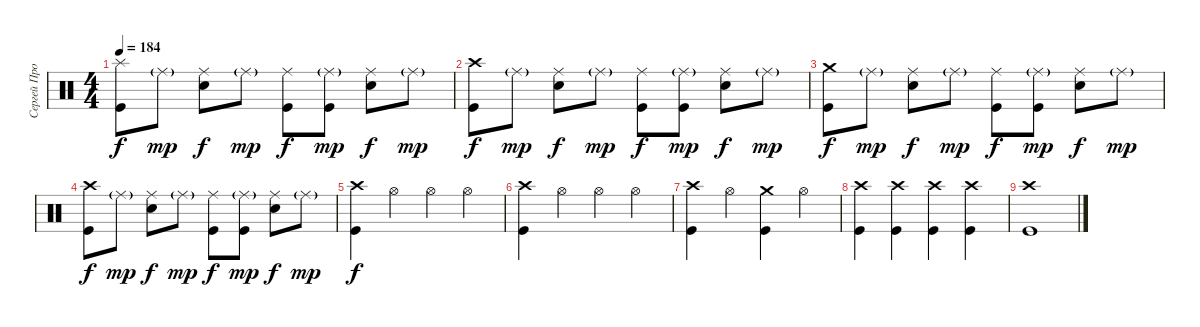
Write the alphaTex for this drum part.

\track ("Сергей Прокофьев" "Сергей Про") {instrument percussion}
\staff {score}
\articulation defaults
\ts (4 4)
\tempo 184
\clef neutral
\ks c
("Splash (hit)" "Kick (hit)").8{dy f} "Ride (middle)"{g}.8{dy mp} ("Ride (middle)" "Electric Snare (hit)").8{dy f} "Ride (middle)"{g}.8{dy mp} ("Ride (middle)" "Kick (hit)").8{dy f} ("Ride (middle)"{g} "Kick (hit)").8{dy mp} ("Ride (middle)" "Electric Snare (hit)").8{dy f} "Ride (middle)"{g}.8{dy mp} |
("Crash high (hit)" "Kick (hit)").8{dy f} "Ride (middle)"{g}.8{dy mp} ("Ride (middle)" "Electric Snare (hit)").8{dy f} "Ride (middle)"{g}.8{dy mp} ("Ride (middle)" "Kick (hit)").8{dy f} ("Ride (middle)"{g} "Kick (hit)").8{dy mp} ("Ride (middle)" "Electric Snare (hit)").8{dy f} "Ride (middle)"{g}.8{dy mp} |
("Crash medium (hit)" "Kick (hit)").8{dy f} "Ride (middle)"{g}.8{dy mp} ("Ride (middle)" "Electric Snare (hit)").8{dy f} "Ride (middle)"{g}.8{dy mp} ("Ride (middle)" "Kick (hit)").8{dy f} ("Ride (middle)"{g} "Kick (hit)").8{dy mp} ("Ride (middle)" "Electric Snare (hit)").8{dy f} "Ride (middle)"{g}.8{dy mp} |
("Crash high (hit)" "Kick (hit)").8{dy f} "Ride (middle)"{g}.8{dy mp} ("Ride (middle)" "Electric Snare (hit)").8{dy f} "Ride (middle)"{g}.8{dy mp} ("Ride (middle)" "Kick (hit)").8{dy f} ("Ride (middle)"{g} "Kick (hit)").8{dy mp} ("Ride (middle)" "Electric Snare (hit)").8{dy f} "Ride (middle)"{g}.8{dy mp} |
("Crash high (hit)" "Kick (hit)").4{dy f} "Hi-Hat (open)".4 "Hi-Hat (open)".4 "Hi-Hat (open)".4 |
("Crash high (hit)" "Kick (hit)").4 "Hi-Hat (open)".4 "Hi-Hat (open)".4 "Hi-Hat (open)".4 |
("Crash high (hit)" "Kick (hit)").4 "Hi-Hat (open)".4 ("Crash medium (hit)" "Kick (hit)").4 "Hi-Hat (open)".4 |
("Crash high (hit)" "Kick (hit)").4 ("Crash high (hit)" "Kick (hit)").4 ("Crash high (hit)" "Kick (hit)").4 ("Crash high (hit)" "Kick (hit)").4 |
("Crash high (hit)" "Kick (hit)").1
